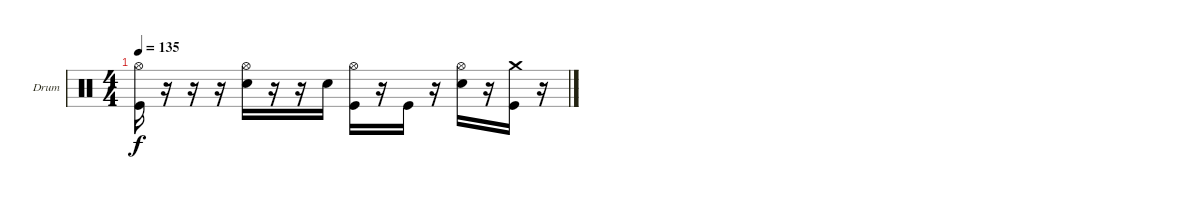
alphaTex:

\defaultSystemsLayout 4
\bracketExtendMode groupsimilarinstruments
\firstSystemTrackNameOrientation horizontal
\otherSystemsTrackNameOrientation horizontal
\track ("Drum" "Drum") {instrument percussion}
\staff {score}
\articulation defaults
\ts (4 4)
\tempo 135
\clef neutral
\ks c
("Hi-Hat (open)" "Kick (hit)").16{dy f} r.16 r.16 r.16 ("Hi-Hat (open)" "Snare (hit) 2").16 r.16 r.16 "Snare (hit) 2".16 ("Hi-Hat (open)" "Kick (hit)").16 r.16 "Kick (hit)".16 r.16 ("Hi-Hat (open)" "Snare (hit) 2").16 r.16 ("Crash medium (hit)" "Kick (hit)").16 r.16
